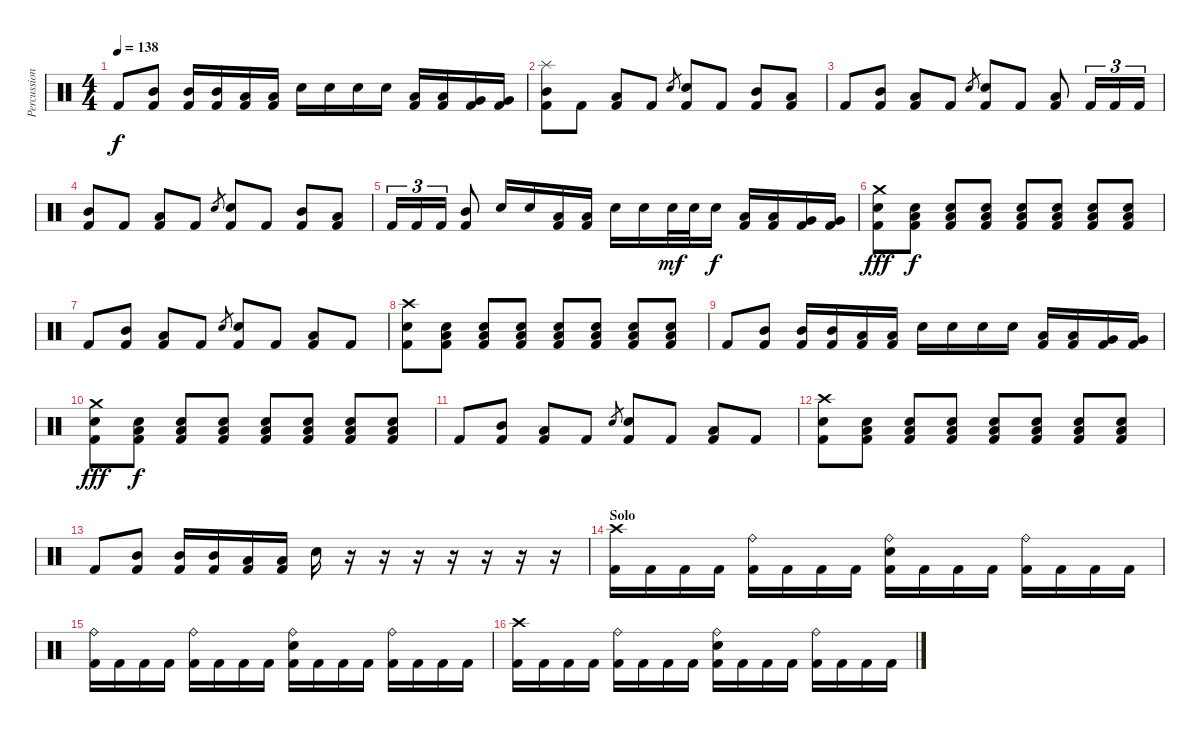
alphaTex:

\track ("Percussion" "Percussion") {instrument percussion}
\staff {score}
\articulation defaults
\ts (4 4)
\tempo 138
\clef neutral
\ks c "Kick (hit) 2".8{dy f}
("Mid Tom (hit)" "Kick (hit) 2").8 ("Mid Tom (hit)" "Kick (hit) 2").16 ("Mid Tom (hit)" "Kick (hit) 2").16 ("Low Tom (hit)" "Kick (hit) 2").16 ("Low Tom (hit)" "Kick (hit) 2").16 "Electric Snare (hit)".16 "Electric Snare (hit)".16 "Electric Snare (hit)".16 "Electric Snare (hit)".16 ("Low Tom (hit)" "Kick (hit) 2").16 ("Low Tom (hit)" "Kick (hit) 2").16 ("Very Low Tom (hit)" "Kick (hit) 2").16 ("Very Low Tom (hit)" "Kick (hit) 2").16 |
("Splash (hit)" "Mid Tom (hit)" "Kick (hit) 2").8 "Kick (hit) 2".8 ("Low Tom (hit)" "Kick (hit) 2").8 "Kick (hit) 2".8 "Electric Snare (hit)".8{gr} ("Electric Snare (hit)" "Kick (hit) 2").8 "Kick (hit) 2".8 ("Mid Tom (hit)" "Kick (hit) 2").8 ("Low Tom (hit)" "Kick (hit) 2").8 |
"Kick (hit) 2".8 ("Mid Tom (hit)" "Kick (hit) 2").8 ("Low Tom (hit)" "Kick (hit) 2").8 "Kick (hit) 2".8 "Electric Snare (hit)".8{gr} ("Electric Snare (hit)" "Kick (hit) 2").8 "Kick (hit) 2".8 ("Low Tom (hit)" "Kick (hit) 2").8 "Kick (hit) 2".16{tu (3 2)} "Kick (hit) 2".16{tu (3 2)} "Kick (hit) 2".16{tu (3 2)} |
("Mid Tom (hit)" "Kick (hit) 2").8 "Kick (hit) 2".8 ("Low Tom (hit)" "Kick (hit) 2").8 "Kick (hit) 2".8 "Electric Snare (hit)".8{gr} ("Electric Snare (hit)" "Kick (hit) 2").8 "Kick (hit) 2".8 ("Mid Tom (hit)" "Kick (hit) 2").8 ("Low Tom (hit)" "Kick (hit) 2").8 |
"Kick (hit) 2".16{tu (3 2)} "Kick (hit) 2".16{tu (3 2)} "Kick (hit) 2".16{tu (3 2)} ("Mid Tom (hit)" "Kick (hit) 2").8 "Electric Snare (hit)".16 "Electric Snare (hit)".16 ("Low Tom (hit)" "Kick (hit) 2").16 ("Low Tom (hit)" "Kick (hit) 2").16 "Electric Snare (hit)".16 "Electric Snare (hit)".16 "Electric Snare (hit)".32{dy mf} "Electric Snare (hit)".32 "Electric Snare (hit)".16{dy f} ("Low Tom (hit)" "Kick (hit) 2").16 ("Low Tom (hit)" "Kick (hit) 2").16 ("Very Low Tom (hit)" "Kick (hit) 2").16 ("Very Low Tom (hit)" "Kick (hit) 2").16 |
("Crash medium (hit)" "Electric Snare (hit)" "Kick (hit) 2").8{dy fff} ("Low Tom (hit)" "Electric Snare (hit)" "Kick (hit) 2").8{dy f} ("Low Tom (hit)" "Electric Snare (hit)" "Kick (hit) 2").8 ("Low Tom (hit)" "Electric Snare (hit)" "Kick (hit) 2").8 ("Low Tom (hit)" "Electric Snare (hit)" "Kick (hit) 2").8 ("Low Tom (hit)" "Electric Snare (hit)" "Kick (hit) 2").8 ("Low Tom (hit)" "Electric Snare (hit)" "Kick (hit) 2").8 ("Low Tom (hit)" "Electric Snare (hit)" "Kick (hit) 2").8 |
"Kick (hit) 2".8 ("Mid Tom (hit)" "Kick (hit) 2").8 ("Low Tom (hit)" "Kick (hit) 2").8 "Kick (hit) 2".8 "Electric Snare (hit)".8{gr} ("Electric Snare (hit)" "Kick (hit) 2").8 "Kick (hit) 2".8 ("Low Tom (hit)" "Kick (hit) 2").8 "Kick (hit) 2".8 |
("Crash high (hit)" "Electric Snare (hit)" "Kick (hit) 2").8 ("Low Tom (hit)" "Electric Snare (hit)" "Kick (hit) 2").8 ("Low Tom (hit)" "Electric Snare (hit)" "Kick (hit) 2").8 ("Low Tom (hit)" "Electric Snare (hit)" "Kick (hit) 2").8 ("Low Tom (hit)" "Electric Snare (hit)" "Kick (hit) 2").8 ("Low Tom (hit)" "Electric Snare (hit)" "Kick (hit) 2").8 ("Low Tom (hit)" "Electric Snare (hit)" "Kick (hit) 2").8 ("Low Tom (hit)" "Electric Snare (hit)" "Kick (hit) 2").8 |
"Kick (hit) 2".8 ("Mid Tom (hit)" "Kick (hit) 2").8 ("Mid Tom (hit)" "Kick (hit) 2").16 ("Mid Tom (hit)" "Kick (hit) 2").16 ("Low Tom (hit)" "Kick (hit) 2").16 ("Low Tom (hit)" "Kick (hit) 2").16 "Electric Snare (hit)".16 "Electric Snare (hit)".16 "Electric Snare (hit)".16 "Electric Snare (hit)".16 ("Low Tom (hit)" "Kick (hit) 2").16 ("Low Tom (hit)" "Kick (hit) 2").16 ("Very Low Tom (hit)" "Kick (hit) 2").16 ("Very Low Tom (hit)" "Kick (hit) 2").16 |
("Crash medium (hit)" "Electric Snare (hit)" "Kick (hit) 2").8{dy fff} ("Low Tom (hit)" "Electric Snare (hit)" "Kick (hit) 2").8{dy f} ("Low Tom (hit)" "Electric Snare (hit)" "Kick (hit) 2").8 ("Low Tom (hit)" "Electric Snare (hit)" "Kick (hit) 2").8 ("Low Tom (hit)" "Electric Snare (hit)" "Kick (hit) 2").8 ("Low Tom (hit)" "Electric Snare (hit)" "Kick (hit) 2").8 ("Low Tom (hit)" "Electric Snare (hit)" "Kick (hit) 2").8 ("Low Tom (hit)" "Electric Snare (hit)" "Kick (hit) 2").8 |
"Kick (hit) 2".8 ("Mid Tom (hit)" "Kick (hit) 2").8 ("Low Tom (hit)" "Kick (hit) 2").8 "Kick (hit) 2".8 "Electric Snare (hit)".8{gr} ("Electric Snare (hit)" "Kick (hit) 2").8 "Kick (hit) 2".8 ("Low Tom (hit)" "Kick (hit) 2").8 "Kick (hit) 2".8 |
("Crash high (hit)" "Electric Snare (hit)" "Kick (hit) 2").8 ("Low Tom (hit)" "Electric Snare (hit)" "Kick (hit) 2").8 ("Low Tom (hit)" "Electric Snare (hit)" "Kick (hit) 2").8 ("Low Tom (hit)" "Electric Snare (hit)" "Kick (hit) 2").8 ("Low Tom (hit)" "Electric Snare (hit)" "Kick (hit) 2").8 ("Low Tom (hit)" "Electric Snare (hit)" "Kick (hit) 2").8 ("Low Tom (hit)" "Electric Snare (hit)" "Kick (hit) 2").8 ("Low Tom (hit)" "Electric Snare (hit)" "Kick (hit) 2").8 |
"Kick (hit) 2".8 ("Mid Tom (hit)" "Kick (hit) 2").8 ("Mid Tom (hit)" "Kick (hit) 2").16 ("Mid Tom (hit)" "Kick (hit) 2").16 ("Low Tom (hit)" "Kick (hit) 2").16 ("Low Tom (hit)" "Kick (hit) 2").16 "Electric Snare (hit)".16 r.16 r.16 r.16 r.16 r.16 r.16 r.16 |
\section ("" "Solo")
("Crash high (hit)" "Kick (hit) 2").16 "Kick (hit) 2".16 "Kick (hit) 2".16 "Kick (hit) 2".16 ("Ride (bell)" "Kick (hit) 2").16 "Kick (hit) 2".16 "Kick (hit) 2".16 "Kick (hit) 2".16 ("Ride (bell)" "Electric Snare (hit)" "Kick (hit) 2").16 "Kick (hit) 2".16 "Kick (hit) 2".16 "Kick (hit) 2".16 ("Ride (bell)" "Kick (hit) 2").16 "Kick (hit) 2".16 "Kick (hit) 2".16 "Kick (hit) 2".16 |
("Ride (bell)" "Kick (hit) 2").16 "Kick (hit) 2".16 "Kick (hit) 2".16 "Kick (hit) 2".16 ("Ride (bell)" "Kick (hit) 2").16 "Kick (hit) 2".16 "Kick (hit) 2".16 "Kick (hit) 2".16 ("Ride (bell)" "Electric Snare (hit)" "Kick (hit) 2").16 "Kick (hit) 2".16 "Kick (hit) 2".16 "Kick (hit) 2".16 ("Ride (bell)" "Kick (hit) 2").16 "Kick (hit) 2".16 "Kick (hit) 2".16 "Kick (hit) 2".16 |
("Crash high (hit)" "Kick (hit) 2").16 "Kick (hit) 2".16 "Kick (hit) 2".16 "Kick (hit) 2".16 ("Ride (bell)" "Kick (hit) 2").16 "Kick (hit) 2".16 "Kick (hit) 2".16 "Kick (hit) 2".16 ("Ride (bell)" "Electric Snare (hit)" "Kick (hit) 2").16 "Kick (hit) 2".16 "Kick (hit) 2".16 "Kick (hit) 2".16 ("Ride (bell)" "Kick (hit) 2").16 "Kick (hit) 2".16 "Kick (hit) 2".16 "Kick (hit) 2".16
